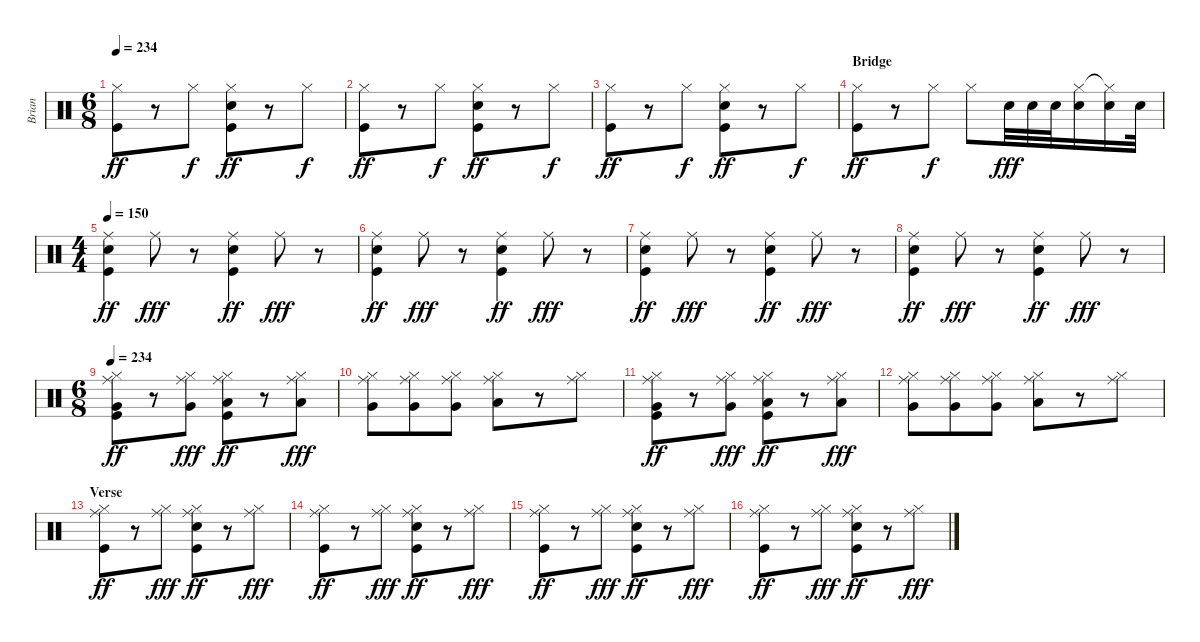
\track ("Brian" "Brian") {instrument percussion}
\staff {score}
\articulation defaults
\ts (6 8)
\tempo 234
\clef neutral
\ks c
("Hi-Hat (closed)" "Kick (hit)").8{dy ff} r.8 "Hi-Hat (closed)".8{dy f} ("Hi-Hat (closed)" "Electric Snare (hit)" "Kick (hit)").8{dy ff} r.8 "Hi-Hat (closed)".8{dy f} |
("Hi-Hat (closed)" "Kick (hit)").8{dy ff} r.8 "Hi-Hat (closed)".8{dy f} ("Hi-Hat (closed)" "Electric Snare (hit)" "Kick (hit)").8{dy ff} r.8 "Hi-Hat (closed)".8{dy f} |
("Hi-Hat (closed)" "Kick (hit)").8{dy ff} r.8 "Hi-Hat (closed)".8{dy f} ("Hi-Hat (closed)" "Electric Snare (hit)" "Kick (hit)").8{dy ff} r.8 "Hi-Hat (closed)".8{dy f} |
\section ("" "Bridge")
("Hi-Hat (closed)" "Kick (hit)").8{dy ff} r.8 "Hi-Hat (closed)".8{dy f} "Hi-Hat (closed)".8 "Electric Snare (hit)".32{dy fff} "Electric Snare (hit)".32 "Electric Snare (hit)".32 ("Hi-Hat (closed)" "Electric Snare (hit)").16 ("Hi-Hat (closed)"{t} "Electric Snare (hit)").16 "Electric Snare (hit)".32 |
\ts (4 4)
\tempo 150
("Ride (middle)" "Electric Snare (hit)" "Kick (hit)").4{dy ff} "Ride (middle)".8{dy fff} r.8 ("Ride (middle)" "Electric Snare (hit)" "Kick (hit)").4{dy ff} "Ride (middle)".8{dy fff} r.8 |
("Ride (middle)" "Electric Snare (hit)" "Kick (hit)").4{dy ff} "Ride (middle)".8{dy fff} r.8 ("Ride (middle)" "Electric Snare (hit)" "Kick (hit)").4{dy ff} "Ride (middle)".8{dy fff} r.8 |
("Ride (middle)" "Electric Snare (hit)" "Kick (hit)").4{dy ff} "Ride (middle)".8{dy fff} r.8 ("Ride (middle)" "Electric Snare (hit)" "Kick (hit)").4{dy ff} "Ride (middle)".8{dy fff} r.8 |
("Ride (middle)" "Electric Snare (hit)" "Kick (hit)").4{dy ff} "Ride (middle)".8{dy fff} r.8 ("Ride (middle)" "Electric Snare (hit)" "Kick (hit)").4{dy ff} "Ride (middle)".8{dy fff} r.8 |
\ts (6 8)
\tempo 234
("Ride (middle)" "Hi-Hat (closed)" "Very Low Tom (hit)" "Kick (hit)").8{dy ff} r.8 ("Ride (middle)" "Hi-Hat (closed)" "Very Low Tom (hit)").8{dy fff} ("Ride (middle)" "Hi-Hat (closed)" "Low Floor Tom (hit)" "Kick (hit)").8{dy ff} r.8 ("Ride (middle)" "Hi-Hat (closed)" "Low Floor Tom (hit)").8{dy fff} |
("Ride (middle)" "Hi-Hat (closed)" "Very Low Tom (hit)").8 ("Ride (middle)" "Hi-Hat (closed)" "Very Low Tom (hit)").8 ("Ride (middle)" "Hi-Hat (closed)" "Very Low Tom (hit)").8 ("Ride (middle)" "Hi-Hat (closed)" "Low Floor Tom (hit)").8 r.8 ("Ride (middle)" "Hi-Hat (closed)").8 |
("Ride (middle)" "Hi-Hat (closed)" "Very Low Tom (hit)" "Kick (hit)").8{dy ff} r.8 ("Ride (middle)" "Hi-Hat (closed)" "Very Low Tom (hit)").8{dy fff} ("Ride (middle)" "Hi-Hat (closed)" "Low Floor Tom (hit)" "Kick (hit)").8{dy ff} r.8 ("Ride (middle)" "Hi-Hat (closed)" "Low Floor Tom (hit)").8{dy fff} |
("Ride (middle)" "Hi-Hat (closed)" "Very Low Tom (hit)").8 ("Ride (middle)" "Hi-Hat (closed)" "Very Low Tom (hit)").8 ("Ride (middle)" "Hi-Hat (closed)" "Very Low Tom (hit)").8 ("Ride (middle)" "Hi-Hat (closed)" "Low Floor Tom (hit)").8 r.8 ("Ride (middle)" "Hi-Hat (closed)").8 |
\section ("" "Verse")
("Ride (middle)" "Hi-Hat (closed)" "Kick (hit)").8{dy ff} r.8 ("Ride (middle)" "Hi-Hat (closed)").8{dy fff} ("Ride (middle)" "Hi-Hat (closed)" "Electric Snare (hit)" "Kick (hit)").8{dy ff} r.8 ("Ride (middle)" "Hi-Hat (closed)").8{dy fff} |
("Ride (middle)" "Hi-Hat (closed)" "Kick (hit)").8{dy ff} r.8 ("Ride (middle)" "Hi-Hat (closed)").8{dy fff} ("Ride (middle)" "Hi-Hat (closed)" "Electric Snare (hit)" "Kick (hit)").8{dy ff} r.8 ("Ride (middle)" "Hi-Hat (closed)").8{dy fff} |
("Ride (middle)" "Hi-Hat (closed)" "Kick (hit)").8{dy ff} r.8 ("Ride (middle)" "Hi-Hat (closed)").8{dy fff} ("Ride (middle)" "Hi-Hat (closed)" "Electric Snare (hit)" "Kick (hit)").8{dy ff} r.8 ("Ride (middle)" "Hi-Hat (closed)").8{dy fff} |
("Ride (middle)" "Hi-Hat (closed)" "Kick (hit)").8{dy ff} r.8 ("Ride (middle)" "Hi-Hat (closed)").8{dy fff} ("Ride (middle)" "Hi-Hat (closed)" "Electric Snare (hit)" "Kick (hit)").8{dy ff} r.8 ("Ride (middle)" "Hi-Hat (closed)").8{dy fff}
